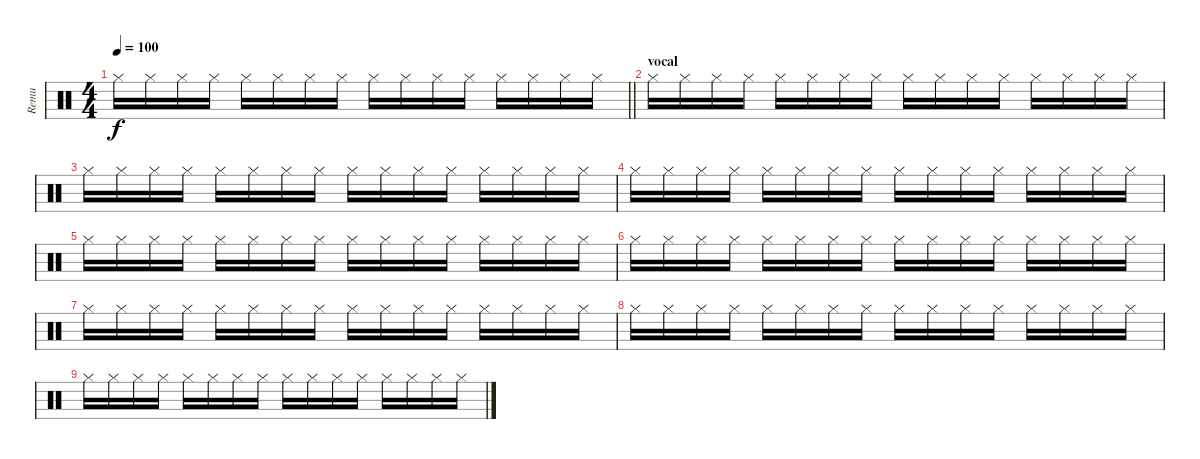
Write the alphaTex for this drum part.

\track ("Remu" "Remu") {instrument percussion}
\staff {score}
\articulation defaults
\ts (4 4)
\tempo 100
\clef neutral
\barLineRight lightlight
\ks c "Hi-Hat (closed)".16{dy f} "Hi-Hat (closed)".16 "Hi-Hat (closed)".16 "Hi-Hat (closed)".16 "Hi-Hat (closed)".16 "Hi-Hat (closed)".16 "Hi-Hat (closed)".16 "Hi-Hat (closed)".16 "Hi-Hat (closed)".16 "Hi-Hat (closed)".16 "Hi-Hat (closed)".16 "Hi-Hat (closed)".16 "Hi-Hat (closed)".16 "Hi-Hat (closed)".16 "Hi-Hat (closed)".16 "Hi-Hat (closed)".16
|
\section ("" "vocal")
"Hi-Hat (closed)".16 "Hi-Hat (closed)".16 "Hi-Hat (closed)".16 "Hi-Hat (closed)".16 "Hi-Hat (closed)".16 "Hi-Hat (closed)".16 "Hi-Hat (closed)".16 "Hi-Hat (closed)".16 "Hi-Hat (closed)".16 "Hi-Hat (closed)".16 "Hi-Hat (closed)".16 "Hi-Hat (closed)".16 "Hi-Hat (closed)".16 "Hi-Hat (closed)".16 "Hi-Hat (closed)".16 "Hi-Hat (closed)".16 |
"Hi-Hat (closed)".16 "Hi-Hat (closed)".16 "Hi-Hat (closed)".16 "Hi-Hat (closed)".16 "Hi-Hat (closed)".16 "Hi-Hat (closed)".16 "Hi-Hat (closed)".16 "Hi-Hat (closed)".16 "Hi-Hat (closed)".16 "Hi-Hat (closed)".16 "Hi-Hat (closed)".16 "Hi-Hat (closed)".16 "Hi-Hat (closed)".16 "Hi-Hat (closed)".16 "Hi-Hat (closed)".16 "Hi-Hat (closed)".16 |
"Hi-Hat (closed)".16 "Hi-Hat (closed)".16 "Hi-Hat (closed)".16 "Hi-Hat (closed)".16 "Hi-Hat (closed)".16 "Hi-Hat (closed)".16 "Hi-Hat (closed)".16 "Hi-Hat (closed)".16 "Hi-Hat (closed)".16 "Hi-Hat (closed)".16 "Hi-Hat (closed)".16 "Hi-Hat (closed)".16 "Hi-Hat (closed)".16 "Hi-Hat (closed)".16 "Hi-Hat (closed)".16 "Hi-Hat (closed)".16 |
"Hi-Hat (closed)".16 "Hi-Hat (closed)".16 "Hi-Hat (closed)".16 "Hi-Hat (closed)".16 "Hi-Hat (closed)".16 "Hi-Hat (closed)".16 "Hi-Hat (closed)".16 "Hi-Hat (closed)".16 "Hi-Hat (closed)".16 "Hi-Hat (closed)".16 "Hi-Hat (closed)".16 "Hi-Hat (closed)".16 "Hi-Hat (closed)".16 "Hi-Hat (closed)".16 "Hi-Hat (closed)".16 "Hi-Hat (closed)".16 |
"Hi-Hat (closed)".16 "Hi-Hat (closed)".16 "Hi-Hat (closed)".16 "Hi-Hat (closed)".16 "Hi-Hat (closed)".16 "Hi-Hat (closed)".16 "Hi-Hat (closed)".16 "Hi-Hat (closed)".16 "Hi-Hat (closed)".16 "Hi-Hat (closed)".16 "Hi-Hat (closed)".16 "Hi-Hat (closed)".16 "Hi-Hat (closed)".16 "Hi-Hat (closed)".16 "Hi-Hat (closed)".16 "Hi-Hat (closed)".16 |
"Hi-Hat (closed)".16 "Hi-Hat (closed)".16 "Hi-Hat (closed)".16 "Hi-Hat (closed)".16 "Hi-Hat (closed)".16 "Hi-Hat (closed)".16 "Hi-Hat (closed)".16 "Hi-Hat (closed)".16 "Hi-Hat (closed)".16 "Hi-Hat (closed)".16 "Hi-Hat (closed)".16 "Hi-Hat (closed)".16 "Hi-Hat (closed)".16 "Hi-Hat (closed)".16 "Hi-Hat (closed)".16 "Hi-Hat (closed)".16 |
"Hi-Hat (closed)".16 "Hi-Hat (closed)".16 "Hi-Hat (closed)".16 "Hi-Hat (closed)".16 "Hi-Hat (closed)".16 "Hi-Hat (closed)".16 "Hi-Hat (closed)".16 "Hi-Hat (closed)".16 "Hi-Hat (closed)".16 "Hi-Hat (closed)".16 "Hi-Hat (closed)".16 "Hi-Hat (closed)".16 "Hi-Hat (closed)".16 "Hi-Hat (closed)".16 "Hi-Hat (closed)".16 "Hi-Hat (closed)".16 |
"Hi-Hat (closed)".16 "Hi-Hat (closed)".16 "Hi-Hat (closed)".16 "Hi-Hat (closed)".16 "Hi-Hat (closed)".16 "Hi-Hat (closed)".16 "Hi-Hat (closed)".16 "Hi-Hat (closed)".16 "Hi-Hat (closed)".16 "Hi-Hat (closed)".16 "Hi-Hat (closed)".16 "Hi-Hat (closed)".16 "Hi-Hat (closed)".16 "Hi-Hat (closed)".16 "Hi-Hat (closed)".16 "Hi-Hat (closed)".16
